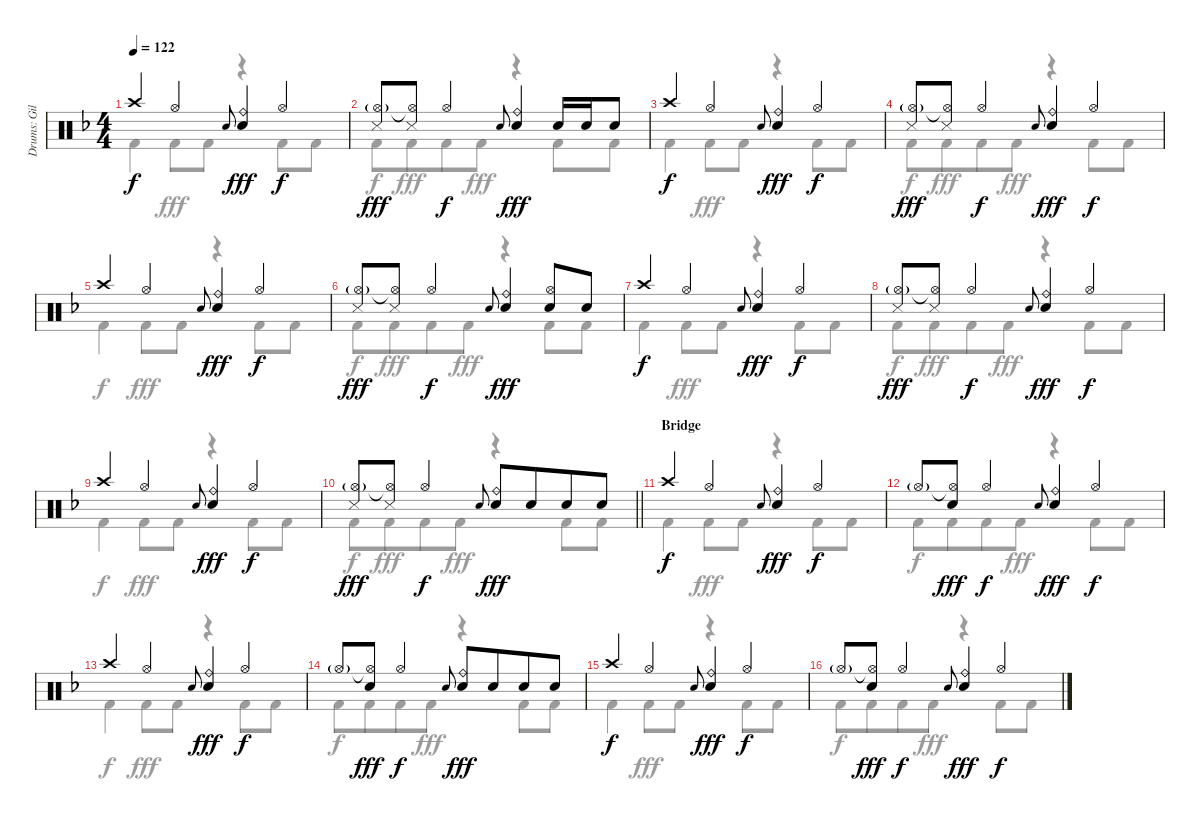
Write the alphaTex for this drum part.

\track ("Drums: Gil" "Drums: Gil") {instrument percussion}
\staff {score}
\articulation defaults
\voice
\ts (4 4)
\tempo 122
\clef neutral
\ks f "Crash high (hit)".4{dy f} "Hi-Hat (open)".4 "Electric Snare (hit)".8{gr onbeat}
("Ride (bell)" "Snare (hit) 2").4{dy fff} "Hi-Hat (open)".4{dy f} |
("Hi-Hat (open)"{g} "Snare (side stick) 3").8{dy fff} ("Hi-Hat (open)"{t} "Snare (side stick) 3").8 "Hi-Hat (open)".4{dy f} "Electric Snare (hit)".8{gr onbeat} ("Ride (bell)" "Snare (hit) 2").4{dy fff} "Snare (hit) 2".16{beam merge} "Snare (hit) 2".16 "Snare (hit) 2".8 |
"Crash high (hit)".4{dy f} "Hi-Hat (open)".4 "Electric Snare (hit)".8{gr onbeat} ("Ride (bell)" "Snare (hit) 2").4{dy fff} "Hi-Hat (open)".4{dy f} |
("Hi-Hat (open)"{g} "Snare (side stick) 3").8{dy fff} ("Hi-Hat (open)"{t} "Snare (side stick) 3").8 "Hi-Hat (open)".4{dy f} "Electric Snare (hit)".8{gr onbeat} ("Ride (bell)" "Snare (hit) 2").4{dy fff} "Hi-Hat (open)".4{dy f} |
"Crash high (hit)".4 "Hi-Hat (open)".4 "Electric Snare (hit)".8{gr onbeat} ("Ride (bell)" "Snare (hit) 2").4{dy fff} "Hi-Hat (open)".4{dy f} |
("Hi-Hat (open)"{g} "Snare (side stick) 3").8{dy fff} ("Hi-Hat (open)"{t} "Snare (side stick) 3").8 "Hi-Hat (open)".4{dy f} "Electric Snare (hit)".8{gr onbeat} ("Ride (bell)" "Snare (hit) 2").4{dy fff} ("Hi-Hat (open)" "Snare (hit) 2").8 "Snare (hit) 2".8 |
"Crash high (hit)".4{dy f} "Hi-Hat (open)".4 "Electric Snare (hit)".8{gr onbeat} ("Ride (bell)" "Snare (hit) 2").4{dy fff} "Hi-Hat (open)".4{dy f} |
("Hi-Hat (open)"{g} "Snare (side stick) 3").8{dy fff} ("Hi-Hat (open)"{t} "Snare (side stick) 3").8 "Hi-Hat (open)".4{dy f} "Electric Snare (hit)".8{gr onbeat} ("Ride (bell)" "Snare (hit) 2").4{dy fff} "Hi-Hat (open)".4{dy f} |
"Crash high (hit)".4 "Hi-Hat (open)".4 "Electric Snare (hit)".8{gr onbeat} ("Ride (bell)" "Snare (hit) 2").4{dy fff} "Hi-Hat (open)".4{dy f} |
\barLineRight lightlight
("Hi-Hat (open)"{g} "Snare (side stick) 3").8{dy fff} ("Hi-Hat (open)"{t} "Snare (side stick) 3").8 "Hi-Hat (open)".4{dy f} "Electric Snare (hit)".8{gr onbeat} ("Ride (bell)" "Snare (hit) 2").8{dy fff} "Snare (hit) 2".8{beam merge} "Snare (hit) 2".8 "Snare (hit) 2".8 |
\section ("" "Bridge")
"Crash high (hit)".4{dy f} "Hi-Hat (open)".4 "Electric Snare (hit)".8{gr onbeat} ("Ride (bell)" "Snare (hit) 2").4{dy fff} "Hi-Hat (open)".4{dy f} |
"Hi-Hat (open)"{g}.8 ("Hi-Hat (open)"{t} "Snare (hit) 2").8{dy fff} "Hi-Hat (open)".4{dy f} "Electric Snare (hit)".8{gr onbeat} ("Ride (bell)" "Snare (hit) 2").4{dy fff} "Hi-Hat (open)".4{dy f} |
"Crash high (hit)".4 "Hi-Hat (open)".4 "Electric Snare (hit)".8{gr onbeat} ("Ride (bell)" "Snare (hit) 2").4{dy fff} "Hi-Hat (open)".4{dy f} |
"Hi-Hat (open)"{g}.8 ("Hi-Hat (open)"{t} "Snare (hit) 2").8{dy fff} "Hi-Hat (open)".4{dy f} "Electric Snare (hit)".8{gr onbeat} ("Ride (bell)" "Snare (hit) 2").8{dy fff} "Snare (hit) 2".8{beam merge} "Snare (hit) 2".8 "Snare (hit) 2".8 |
"Crash high (hit)".4{dy f} "Hi-Hat (open)".4 "Electric Snare (hit)".8{gr onbeat} ("Ride (bell)" "Snare (hit) 2").4{dy fff} "Hi-Hat (open)".4{dy f} |
"Hi-Hat (open)"{g}.8 ("Hi-Hat (open)"{t} "Snare (hit) 2").8{dy fff} "Hi-Hat (open)".4{dy f} "Electric Snare (hit)".8{gr onbeat} ("Ride (bell)" "Snare (hit) 2").4{dy fff} "Hi-Hat (open)".4{dy f}
\voice
\clef neutral
\ottava regular
\simile none
\ks f "Kick (hit) 2".4{dy f} "Kick (hit) 2".8{dy fff} "Kick (hit) 2".8
r.4 "Kick (hit) 2".8 "Kick (hit) 2".8 |
"Kick (hit) 2".8{dy f} "Kick (hit) 2".8{dy fff beam merge} "Kick (hit) 2".8{dy f} "Kick (hit) 2".8{dy fff} r.4 "Kick (hit) 2".8 "Kick (hit) 2".8 |
"Kick (hit) 2".4{dy f} "Kick (hit) 2".8{dy fff} "Kick (hit) 2".8 r.4 "Kick (hit) 2".8 "Kick (hit) 2".8 |
"Kick (hit) 2".8{dy f} "Kick (hit) 2".8{dy fff beam merge} "Kick (hit) 2".8{dy f} "Kick (hit) 2".8{dy fff} r.4 "Kick (hit) 2".8 "Kick (hit) 2".8 |
"Kick (hit) 2".4{dy f} "Kick (hit) 2".8{dy fff} "Kick (hit) 2".8 r.4 "Kick (hit) 2".8 "Kick (hit) 2".8 |
"Kick (hit) 2".8{dy f} "Kick (hit) 2".8{dy fff beam merge} "Kick (hit) 2".8{dy f} "Kick (hit) 2".8{dy fff} r.4 "Kick (hit) 2".8 "Kick (hit) 2".8 |
"Kick (hit) 2".4{dy f} "Kick (hit) 2".8{dy fff} "Kick (hit) 2".8 r.4 "Kick (hit) 2".8 "Kick (hit) 2".8 |
"Kick (hit) 2".8{dy f} "Kick (hit) 2".8{dy fff beam merge} "Kick (hit) 2".8{dy f} "Kick (hit) 2".8{dy fff} r.4 "Kick (hit) 2".8 "Kick (hit) 2".8 |
"Kick (hit) 2".4{dy f} "Kick (hit) 2".8{dy fff} "Kick (hit) 2".8 r.4 "Kick (hit) 2".8 "Kick (hit) 2".8 |
\barLineRight lightlight "Kick (hit) 2".8{dy f} "Kick (hit) 2".8{dy fff beam merge} "Kick (hit) 2".8{dy f} "Kick (hit) 2".8{dy fff}
r.4 "Kick (hit) 2".8 "Kick (hit) 2".8 |
"Kick (hit) 2".4{dy f} "Kick (hit) 2".8{dy fff} "Kick (hit) 2".8 r.4 "Kick (hit) 2".8 "Kick (hit) 2".8 |
"Kick (hit) 2".8{dy f} "Kick (hit) 2".8{dy fff beam merge} "Kick (hit) 2".8{dy f} "Kick (hit) 2".8{dy fff} r.4 "Kick (hit) 2".8 "Kick (hit) 2".8 |
"Kick (hit) 2".4{dy f} "Kick (hit) 2".8{dy fff} "Kick (hit) 2".8 r.4 "Kick (hit) 2".8 "Kick (hit) 2".8 |
"Kick (hit) 2".8{dy f} "Kick (hit) 2".8{dy fff beam merge} "Kick (hit) 2".8{dy f} "Kick (hit) 2".8{dy fff} r.4 "Kick (hit) 2".8 "Kick (hit) 2".8 |
"Kick (hit) 2".4{dy f} "Kick (hit) 2".8{dy fff} "Kick (hit) 2".8 r.4 "Kick (hit) 2".8 "Kick (hit) 2".8 |
"Kick (hit) 2".8{dy f} "Kick (hit) 2".8{dy fff beam merge} "Kick (hit) 2".8{dy f} "Kick (hit) 2".8{dy fff} r.4 "Kick (hit) 2".8 "Kick (hit) 2".8
